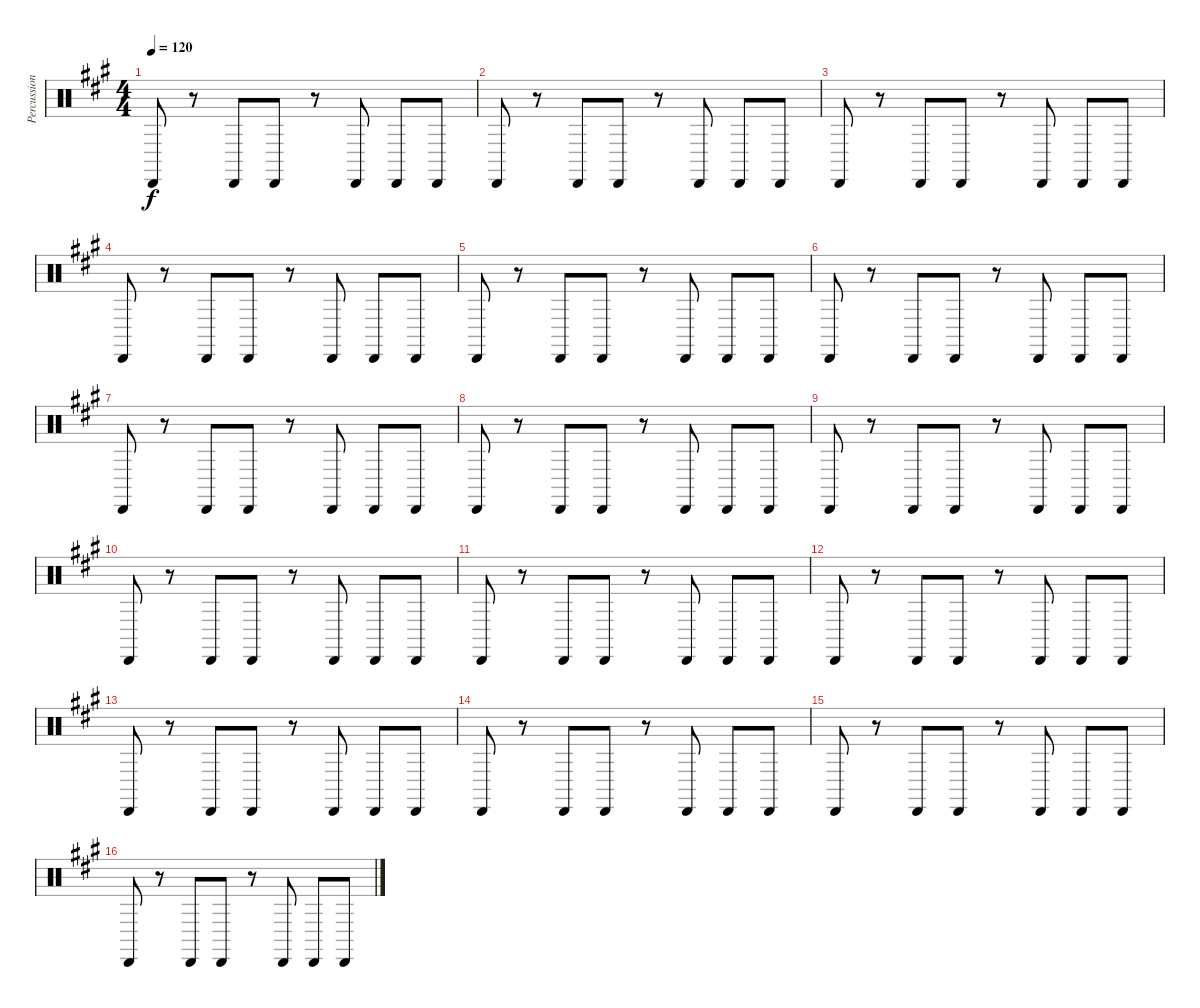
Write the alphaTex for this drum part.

\track ("Percussion" "Percussion") {instrument percussion}
\staff {score}
\articulation defaults
\ts (4 4)
\tempo 120
\clef neutral
\ks f#minor "Cabasa (hit)".8{dy f}
r.8 "Cabasa (hit)".8 "Cabasa (hit)".8 r.8 "Cabasa (hit)".8 "Cabasa (hit)".8 "Cabasa (hit)".8 |
"Cabasa (hit)".8 r.8 "Cabasa (hit)".8 "Cabasa (hit)".8 r.8 "Cabasa (hit)".8 "Cabasa (hit)".8 "Cabasa (hit)".8 |
"Cabasa (hit)".8 r.8 "Cabasa (hit)".8 "Cabasa (hit)".8 r.8 "Cabasa (hit)".8 "Cabasa (hit)".8 "Cabasa (hit)".8 |
"Cabasa (hit)".8 r.8 "Cabasa (hit)".8 "Cabasa (hit)".8 r.8 "Cabasa (hit)".8 "Cabasa (hit)".8 "Cabasa (hit)".8 |
"Cabasa (hit)".8 r.8 "Cabasa (hit)".8 "Cabasa (hit)".8 r.8 "Cabasa (hit)".8 "Cabasa (hit)".8 "Cabasa (hit)".8 |
"Cabasa (hit)".8 r.8 "Cabasa (hit)".8 "Cabasa (hit)".8 r.8 "Cabasa (hit)".8 "Cabasa (hit)".8 "Cabasa (hit)".8 |
"Cabasa (hit)".8 r.8 "Cabasa (hit)".8 "Cabasa (hit)".8 r.8 "Cabasa (hit)".8 "Cabasa (hit)".8 "Cabasa (hit)".8 |
"Cabasa (hit)".8 r.8 "Cabasa (hit)".8 "Cabasa (hit)".8 r.8 "Cabasa (hit)".8 "Cabasa (hit)".8 "Cabasa (hit)".8 |
"Cabasa (hit)".8 r.8 "Cabasa (hit)".8 "Cabasa (hit)".8 r.8 "Cabasa (hit)".8 "Cabasa (hit)".8 "Cabasa (hit)".8 |
"Cabasa (hit)".8 r.8 "Cabasa (hit)".8 "Cabasa (hit)".8 r.8 "Cabasa (hit)".8 "Cabasa (hit)".8 "Cabasa (hit)".8 |
"Cabasa (hit)".8 r.8 "Cabasa (hit)".8 "Cabasa (hit)".8 r.8 "Cabasa (hit)".8 "Cabasa (hit)".8 "Cabasa (hit)".8 |
"Cabasa (hit)".8 r.8 "Cabasa (hit)".8 "Cabasa (hit)".8 r.8 "Cabasa (hit)".8 "Cabasa (hit)".8 "Cabasa (hit)".8 |
"Cabasa (hit)".8 r.8 "Cabasa (hit)".8 "Cabasa (hit)".8 r.8 "Cabasa (hit)".8 "Cabasa (hit)".8 "Cabasa (hit)".8 |
"Cabasa (hit)".8 r.8 "Cabasa (hit)".8 "Cabasa (hit)".8 r.8 "Cabasa (hit)".8 "Cabasa (hit)".8 "Cabasa (hit)".8 |
"Cabasa (hit)".8 r.8 "Cabasa (hit)".8 "Cabasa (hit)".8 r.8 "Cabasa (hit)".8 "Cabasa (hit)".8 "Cabasa (hit)".8 |
"Cabasa (hit)".8 r.8 "Cabasa (hit)".8 "Cabasa (hit)".8 r.8 "Cabasa (hit)".8 "Cabasa (hit)".8 "Cabasa (hit)".8
